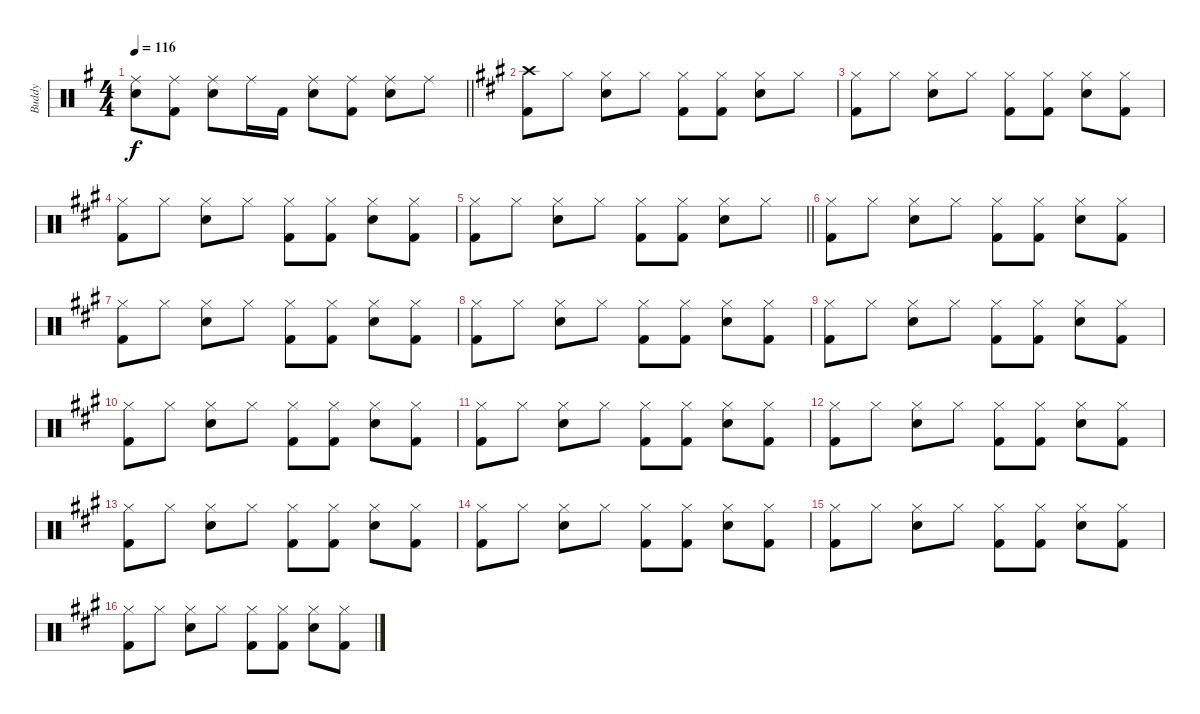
\track ("Buddy" "Buddy") {instrument percussion}
\staff {score}
\articulation defaults
\ts (4 4)
\tempo 116
\clef neutral
\barLineRight lightlight
\ks g
("Ride (middle)" "Snare (hit) 2").8{dy f} ("Ride (middle)" "Kick (hit) 2").8 ("Ride (middle)" "Snare (hit) 2").8 "Ride (middle)".16 "Kick (hit) 2".16 ("Ride (middle)" "Snare (hit) 2").8 ("Ride (middle)" "Kick (hit) 2").8 ("Ride (middle)" "Snare (hit) 2").8 "Ride (middle)".8 |
\ks a
("Crash high (hit)" "Kick (hit) 2").8 "Hi-Hat (closed)".8 ("Hi-Hat (closed)" "Snare (hit) 2").8 "Hi-Hat (closed)".8 ("Hi-Hat (closed)" "Kick (hit) 2").8 ("Hi-Hat (closed)" "Kick (hit) 2").8 ("Hi-Hat (closed)" "Snare (hit) 2").8 "Hi-Hat (closed)".8 |
("Hi-Hat (closed)" "Kick (hit) 2").8 "Hi-Hat (closed)".8 ("Hi-Hat (closed)" "Snare (hit) 2").8 "Hi-Hat (closed)".8 ("Hi-Hat (closed)" "Kick (hit) 2").8 ("Hi-Hat (closed)" "Kick (hit) 2").8 ("Hi-Hat (closed)" "Snare (hit) 2").8 ("Hi-Hat (closed)" "Kick (hit) 2").8 |
("Hi-Hat (closed)" "Kick (hit) 2").8 "Hi-Hat (closed)".8 ("Hi-Hat (closed)" "Snare (hit) 2").8 "Hi-Hat (closed)".8 ("Hi-Hat (closed)" "Kick (hit) 2").8 ("Hi-Hat (closed)" "Kick (hit) 2").8 ("Hi-Hat (closed)" "Snare (hit) 2").8 ("Hi-Hat (closed)" "Kick (hit) 2").8 |
\barLineRight lightlight
("Hi-Hat (closed)" "Kick (hit) 2").8 "Hi-Hat (closed)".8 ("Hi-Hat (closed)" "Snare (hit) 2").8 "Hi-Hat (closed)".8 ("Hi-Hat (closed)" "Kick (hit) 2").8 ("Hi-Hat (closed)" "Kick (hit) 2").8 ("Hi-Hat (closed)" "Snare (hit) 2").8 "Hi-Hat (closed)".8 |
("Hi-Hat (closed)" "Kick (hit) 2").8 "Hi-Hat (closed)".8 ("Hi-Hat (closed)" "Snare (hit) 2").8 "Hi-Hat (closed)".8 ("Hi-Hat (closed)" "Kick (hit) 2").8 ("Hi-Hat (closed)" "Kick (hit) 2").8 ("Hi-Hat (closed)" "Snare (hit) 2").8 ("Hi-Hat (closed)" "Kick (hit) 2").8 |
("Hi-Hat (closed)" "Kick (hit) 2").8 "Hi-Hat (closed)".8 ("Hi-Hat (closed)" "Snare (hit) 2").8 "Hi-Hat (closed)".8 ("Hi-Hat (closed)" "Kick (hit) 2").8 ("Hi-Hat (closed)" "Kick (hit) 2").8 ("Hi-Hat (closed)" "Snare (hit) 2").8 ("Hi-Hat (closed)" "Kick (hit) 2").8 |
("Hi-Hat (closed)" "Kick (hit) 2").8 "Hi-Hat (closed)".8 ("Hi-Hat (closed)" "Snare (hit) 2").8 "Hi-Hat (closed)".8 ("Hi-Hat (closed)" "Kick (hit) 2").8 ("Hi-Hat (closed)" "Kick (hit) 2").8 ("Hi-Hat (closed)" "Snare (hit) 2").8 ("Hi-Hat (closed)" "Kick (hit) 2").8 |
("Hi-Hat (closed)" "Kick (hit) 2").8 "Hi-Hat (closed)".8 ("Hi-Hat (closed)" "Snare (hit) 2").8 "Hi-Hat (closed)".8 ("Hi-Hat (closed)" "Kick (hit) 2").8 ("Hi-Hat (closed)" "Kick (hit) 2").8 ("Hi-Hat (closed)" "Snare (hit) 2").8 ("Hi-Hat (closed)" "Kick (hit) 2").8 |
("Hi-Hat (closed)" "Kick (hit) 2").8 "Hi-Hat (closed)".8 ("Hi-Hat (closed)" "Snare (hit) 2").8 "Hi-Hat (closed)".8 ("Hi-Hat (closed)" "Kick (hit) 2").8 ("Hi-Hat (closed)" "Kick (hit) 2").8 ("Hi-Hat (closed)" "Snare (hit) 2").8 ("Hi-Hat (closed)" "Kick (hit) 2").8 |
("Hi-Hat (closed)" "Kick (hit) 2").8 "Hi-Hat (closed)".8 ("Hi-Hat (closed)" "Snare (hit) 2").8 "Hi-Hat (closed)".8 ("Hi-Hat (closed)" "Kick (hit) 2").8 ("Hi-Hat (closed)" "Kick (hit) 2").8 ("Hi-Hat (closed)" "Snare (hit) 2").8 ("Hi-Hat (closed)" "Kick (hit) 2").8 |
("Hi-Hat (closed)" "Kick (hit) 2").8 "Hi-Hat (closed)".8 ("Hi-Hat (closed)" "Snare (hit) 2").8 "Hi-Hat (closed)".8 ("Hi-Hat (closed)" "Kick (hit) 2").8 ("Hi-Hat (closed)" "Kick (hit) 2").8 ("Hi-Hat (closed)" "Snare (hit) 2").8 ("Hi-Hat (closed)" "Kick (hit) 2").8 |
("Hi-Hat (closed)" "Kick (hit) 2").8 "Hi-Hat (closed)".8 ("Hi-Hat (closed)" "Snare (hit) 2").8 "Hi-Hat (closed)".8 ("Hi-Hat (closed)" "Kick (hit) 2").8 ("Hi-Hat (closed)" "Kick (hit) 2").8 ("Hi-Hat (closed)" "Snare (hit) 2").8 ("Hi-Hat (closed)" "Kick (hit) 2").8 |
("Hi-Hat (closed)" "Kick (hit) 2").8 "Hi-Hat (closed)".8 ("Hi-Hat (closed)" "Snare (hit) 2").8 "Hi-Hat (closed)".8 ("Hi-Hat (closed)" "Kick (hit) 2").8 ("Hi-Hat (closed)" "Kick (hit) 2").8 ("Hi-Hat (closed)" "Snare (hit) 2").8 ("Hi-Hat (closed)" "Kick (hit) 2").8 |
("Hi-Hat (closed)" "Kick (hit) 2").8 "Hi-Hat (closed)".8 ("Hi-Hat (closed)" "Snare (hit) 2").8 "Hi-Hat (closed)".8 ("Hi-Hat (closed)" "Kick (hit) 2").8 ("Hi-Hat (closed)" "Kick (hit) 2").8 ("Hi-Hat (closed)" "Snare (hit) 2").8 ("Hi-Hat (closed)" "Kick (hit) 2").8 |
("Hi-Hat (closed)" "Kick (hit) 2").8 "Hi-Hat (closed)".8 ("Hi-Hat (closed)" "Snare (hit) 2").8 "Hi-Hat (closed)".8 ("Hi-Hat (closed)" "Kick (hit) 2").8 ("Hi-Hat (closed)" "Kick (hit) 2").8 ("Hi-Hat (closed)" "Snare (hit) 2").8 ("Hi-Hat (closed)" "Kick (hit) 2").8
